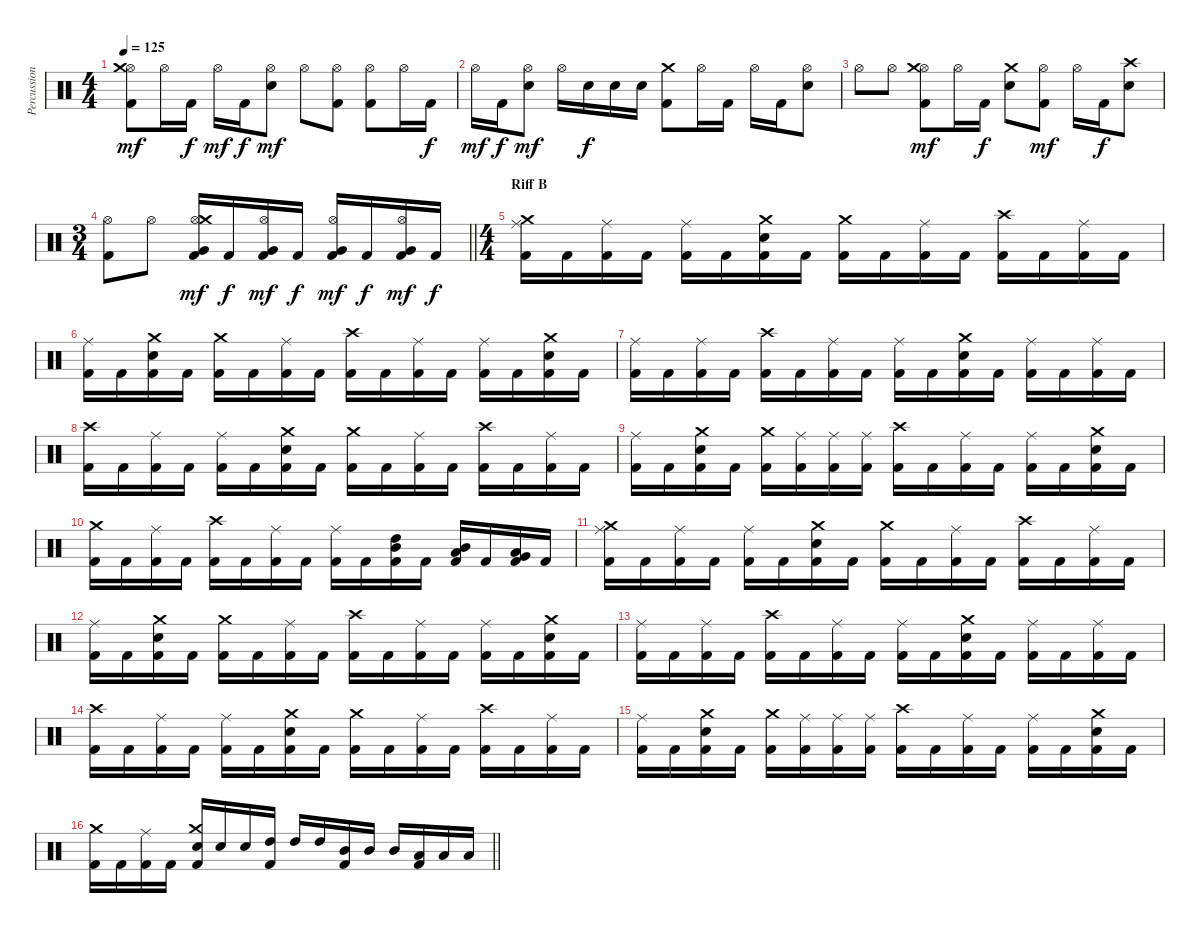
\track ("Percussion" "Percussion") {instrument percussion}
\staff {score}
\articulation defaults
\ts (4 4)
\tempo 125
\clef neutral
\ks c
("Kick (hit) 2" "Hi-Hat (open)" "Crash medium (hit)").8{dy mf} "Hi-Hat (open)".16 "Kick (hit) 2".16{dy f} "Hi-Hat (open)".16{dy mf} "Kick (hit) 2".16{dy f} ("Snare (hit) 2" "Hi-Hat (open)").8{dy mf} "Hi-Hat (open)".8 ("Kick (hit) 2" "Hi-Hat (open)").8 ("Kick (hit) 2" "Hi-Hat (open)").8 "Hi-Hat (open)".16 "Kick (hit) 2".16{dy f} |
"Hi-Hat (open)".16{dy mf} "Kick (hit) 2".16{dy f} ("Snare (hit) 2" "Hi-Hat (open)").8{dy mf} "Hi-Hat (open)".16 "Snare (hit) 2".16{dy f} "Snare (hit) 2".16 "Snare (hit) 2".16 ("Kick (hit) 2" "Crash medium (hit)").8 "Hi-Hat (open)".16 "Kick (hit) 2".16 "Hi-Hat (open)".16 "Kick (hit) 2".16 ("Snare (hit) 2" "Hi-Hat (open)").8 |
"Hi-Hat (open)".8 "Hi-Hat (open)".8 ("Kick (hit) 2" "Hi-Hat (open)" "Crash medium (hit)").8{dy mf} "Hi-Hat (open)".16 "Kick (hit) 2".16{dy f} ("Snare (hit) 2" "Crash medium (hit)").8 ("Kick (hit) 2" "Hi-Hat (open)").8{dy mf} "Hi-Hat (open)".16 "Kick (hit) 2".16{dy f} ("Snare (hit) 2" "Crash high (hit)").8 |
\ts (3 4)
\barLineRight lightlight
("Kick (hit) 2" "Hi-Hat (open)").8 "Hi-Hat (open)".8 ("Kick (hit) 2" "Very Low Tom (hit)" "Hi-Hat (open)" "Crash medium (hit)").16{dy mf} "Kick (hit) 2".16{dy f} ("Kick (hit) 2" "Very Low Tom (hit)" "Hi-Hat (open)").16{dy mf} "Kick (hit) 2".16{dy f} ("Kick (hit) 2" "Very Low Tom (hit)" "Hi-Hat (open)").16{dy mf} "Kick (hit) 2".16{dy f} ("Kick (hit) 2" "Very Low Tom (hit)" "Hi-Hat (open)").16{dy mf} "Kick (hit) 2".16{dy f} |
\ts (4 4)
\section ("" "Riff B")
("Kick (hit) 2" "Ride (middle)" "Crash medium (hit)").16 "Kick (hit) 2".16 ("Kick (hit) 2" "Ride (middle)").16 "Kick (hit) 2".16 ("Kick (hit) 2" "Ride (middle)").16 "Kick (hit) 2".16 ("Kick (hit) 2" "Snare (hit) 2" "Crash medium (hit)").16 "Kick (hit) 2".16 ("Kick (hit) 2" "Crash medium (hit)").16 "Kick (hit) 2".16 ("Kick (hit) 2" "Ride (middle)").16 "Kick (hit) 2".16 ("Kick (hit) 2" "Crash high (hit)").16 "Kick (hit) 2".16 ("Kick (hit) 2" "Ride (middle)").16 "Kick (hit) 2".16 |
("Kick (hit) 2" "Ride (middle)").16 "Kick (hit) 2".16 ("Kick (hit) 2" "Snare (hit) 2" "Crash medium (hit)").16 "Kick (hit) 2".16 ("Kick (hit) 2" "Crash medium (hit)").16 "Kick (hit) 2".16 ("Kick (hit) 2" "Ride (middle)").16 "Kick (hit) 2".16 ("Kick (hit) 2" "Crash high (hit)").16 "Kick (hit) 2".16 ("Kick (hit) 2" "Ride (middle)").16 "Kick (hit) 2".16 ("Kick (hit) 2" "Ride (middle)").16 "Kick (hit) 2".16 ("Kick (hit) 2" "Snare (hit) 2" "Crash medium (hit)").16 "Kick (hit) 2".16 |
("Kick (hit) 2" "Ride (middle)").16 "Kick (hit) 2".16 ("Kick (hit) 2" "Ride (middle)").16 "Kick (hit) 2".16 ("Kick (hit) 2" "Crash high (hit)").16 "Kick (hit) 2".16 ("Kick (hit) 2" "Ride (middle)").16 "Kick (hit) 2".16 ("Kick (hit) 2" "Ride (middle)").16 "Kick (hit) 2".16 ("Kick (hit) 2" "Snare (hit) 2" "Crash medium (hit)").16 "Kick (hit) 2".16 ("Kick (hit) 2" "Ride (middle)").16 "Kick (hit) 2".16 ("Kick (hit) 2" "Ride (middle)").16 "Kick (hit) 2".16 |
("Kick (hit) 2" "Crash high (hit)").16 "Kick (hit) 2".16 ("Kick (hit) 2" "Ride (middle)").16 "Kick (hit) 2".16 ("Kick (hit) 2" "Ride (middle)").16 "Kick (hit) 2".16 ("Kick (hit) 2" "Snare (hit) 2" "Crash medium (hit)").16 "Kick (hit) 2".16 ("Kick (hit) 2" "Crash medium (hit)").16 "Kick (hit) 2".16 ("Kick (hit) 2" "Ride (middle)").16 "Kick (hit) 2".16 ("Kick (hit) 2" "Crash high (hit)").16 "Kick (hit) 2".16 ("Kick (hit) 2" "Ride (middle)").16 "Kick (hit) 2".16 |
("Kick (hit) 2" "Ride (middle)").16 "Kick (hit) 2".16 ("Kick (hit) 2" "Snare (hit) 2" "Crash medium (hit)").16 "Kick (hit) 2".16 ("Kick (hit) 2" "Crash medium (hit)").16 ("Kick (hit) 2" "Ride (middle)").16 ("Kick (hit) 2" "Ride (middle)").16 ("Kick (hit) 2" "Ride (middle)").16 ("Kick (hit) 2" "Crash high (hit)").16 "Kick (hit) 2".16 ("Kick (hit) 2" "Ride (middle)").16 "Kick (hit) 2".16 ("Kick (hit) 2" "Ride (middle)").16 "Kick (hit) 2".16 ("Kick (hit) 2" "Snare (hit) 2" "Crash medium (hit)").16 "Kick (hit) 2".16 |
("Kick (hit) 2" "Crash medium (hit)").16 "Kick (hit) 2".16 ("Kick (hit) 2" "Ride (middle)").16 "Kick (hit) 2".16 ("Kick (hit) 2" "Crash high (hit)").16 "Kick (hit) 2".16 ("Kick (hit) 2" "Ride (middle)").16 "Kick (hit) 2".16 ("Kick (hit) 2" "Ride (middle)").16 "Kick (hit) 2".16 ("Kick (hit) 2" "Mid Tom (hit)" "High Tom (hit)").16 "Kick (hit) 2".16 ("Kick (hit) 2" "Mid Tom (hit)" "Low Tom (hit)").16 "Kick (hit) 2".16 ("Kick (hit) 2" "Low Tom (hit)" "Very Low Tom (hit)").16 "Kick (hit) 2".16 |
("Kick (hit) 2" "Ride (middle)" "Crash medium (hit)").16 "Kick (hit) 2".16 ("Kick (hit) 2" "Ride (middle)").16 "Kick (hit) 2".16 ("Kick (hit) 2" "Ride (middle)").16 "Kick (hit) 2".16 ("Kick (hit) 2" "Snare (hit) 2" "Crash medium (hit)").16 "Kick (hit) 2".16 ("Kick (hit) 2" "Crash medium (hit)").16 "Kick (hit) 2".16 ("Kick (hit) 2" "Ride (middle)").16 "Kick (hit) 2".16 ("Kick (hit) 2" "Crash high (hit)").16 "Kick (hit) 2".16 ("Kick (hit) 2" "Ride (middle)").16 "Kick (hit) 2".16 |
("Kick (hit) 2" "Ride (middle)").16 "Kick (hit) 2".16 ("Kick (hit) 2" "Snare (hit) 2" "Crash medium (hit)").16 "Kick (hit) 2".16 ("Kick (hit) 2" "Crash medium (hit)").16 "Kick (hit) 2".16 ("Kick (hit) 2" "Ride (middle)").16 "Kick (hit) 2".16 ("Kick (hit) 2" "Crash high (hit)").16 "Kick (hit) 2".16 ("Kick (hit) 2" "Ride (middle)").16 "Kick (hit) 2".16 ("Kick (hit) 2" "Ride (middle)").16 "Kick (hit) 2".16 ("Kick (hit) 2" "Snare (hit) 2" "Crash medium (hit)").16 "Kick (hit) 2".16 |
("Kick (hit) 2" "Ride (middle)").16 "Kick (hit) 2".16 ("Kick (hit) 2" "Ride (middle)").16 "Kick (hit) 2".16 ("Kick (hit) 2" "Crash high (hit)").16 "Kick (hit) 2".16 ("Kick (hit) 2" "Ride (middle)").16 "Kick (hit) 2".16 ("Kick (hit) 2" "Ride (middle)").16 "Kick (hit) 2".16 ("Kick (hit) 2" "Snare (hit) 2" "Crash medium (hit)").16 "Kick (hit) 2".16 ("Kick (hit) 2" "Ride (middle)").16 "Kick (hit) 2".16 ("Kick (hit) 2" "Ride (middle)").16 "Kick (hit) 2".16 |
("Kick (hit) 2" "Crash high (hit)").16 "Kick (hit) 2".16 ("Kick (hit) 2" "Ride (middle)").16 "Kick (hit) 2".16 ("Kick (hit) 2" "Ride (middle)").16 "Kick (hit) 2".16 ("Kick (hit) 2" "Snare (hit) 2" "Crash medium (hit)").16 "Kick (hit) 2".16 ("Kick (hit) 2" "Crash medium (hit)").16 "Kick (hit) 2".16 ("Kick (hit) 2" "Ride (middle)").16 "Kick (hit) 2".16 ("Kick (hit) 2" "Crash high (hit)").16 "Kick (hit) 2".16 ("Kick (hit) 2" "Ride (middle)").16 "Kick (hit) 2".16 |
("Kick (hit) 2" "Ride (middle)").16 "Kick (hit) 2".16 ("Kick (hit) 2" "Snare (hit) 2" "Crash medium (hit)").16 "Kick (hit) 2".16 ("Kick (hit) 2" "Crash medium (hit)").16 ("Kick (hit) 2" "Ride (middle)").16 ("Kick (hit) 2" "Ride (middle)").16 ("Kick (hit) 2" "Ride (middle)").16 ("Kick (hit) 2" "Crash high (hit)").16 "Kick (hit) 2".16 ("Kick (hit) 2" "Ride (middle)").16 "Kick (hit) 2".16 ("Kick (hit) 2" "Ride (middle)").16 "Kick (hit) 2".16 ("Kick (hit) 2" "Snare (hit) 2" "Crash medium (hit)").16 "Kick (hit) 2".16 |
\barLineRight lightlight
("Kick (hit) 2" "Crash medium (hit)").16 "Kick (hit) 2".16 ("Kick (hit) 2" "Ride (middle)").16 "Kick (hit) 2".16 ("Kick (hit) 2" "Snare (hit) 2" "Crash medium (hit)").16 "Snare (hit) 2".16 "Snare (hit) 2".16 ("High Tom (hit)" "Kick (hit) 2").16 "High Tom (hit)".16 "High Tom (hit)".16 ("Mid Tom (hit)" "Kick (hit) 2").16 "Mid Tom (hit)".16 "Mid Tom (hit)".16 ("Low Tom (hit)" "Kick (hit) 2").16 "Low Tom (hit)".16 "Low Tom (hit)".16
